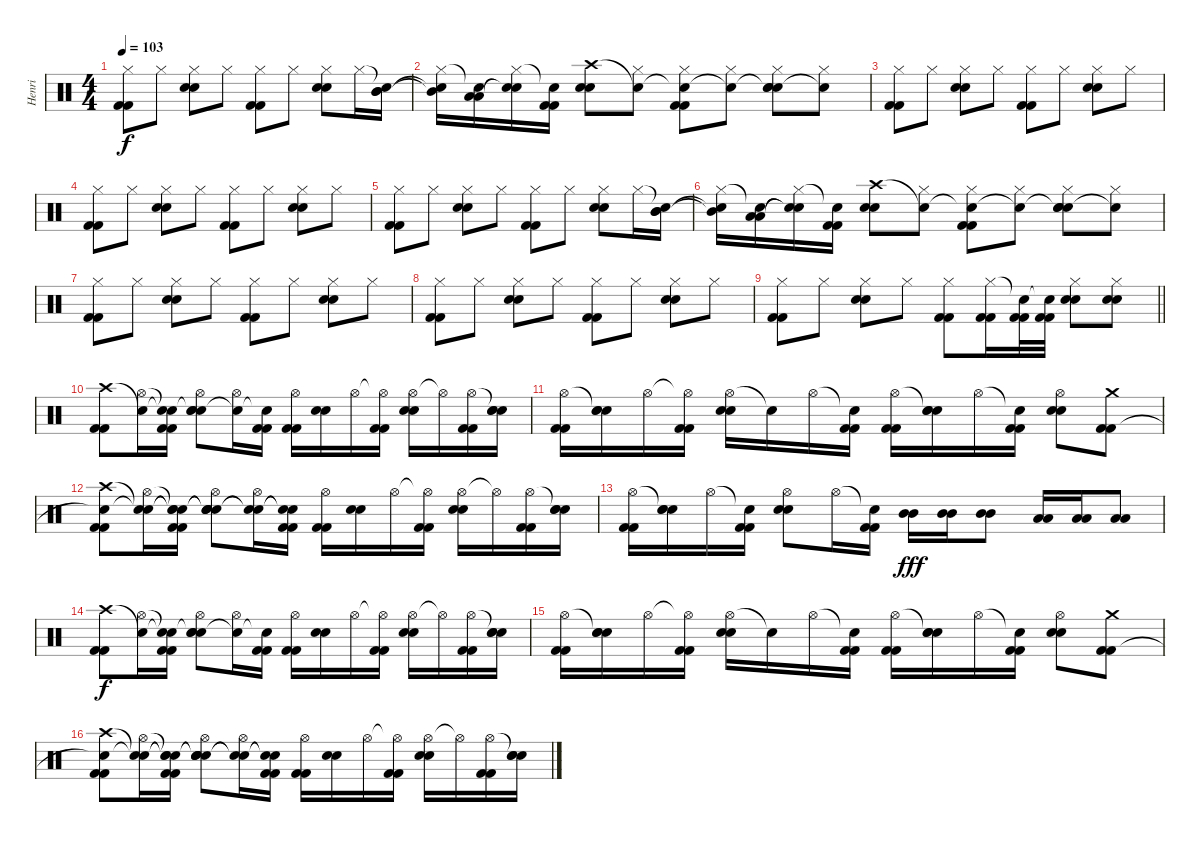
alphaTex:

\track ("Henri" "Henri") {instrument percussion}
\staff {score}
\articulation defaults
\ts (4 4)
\tempo 103
\clef neutral
\ks c
("Hi-Hat (closed)" "Kick (hit) 2" "Kick (hit) 2").8{dy f} "Hi-Hat (closed)".8 ("Hi-Hat (closed)" "Snare (hit) 2" "Snare (hit) 2").8 "Hi-Hat (closed)".8 ("Hi-Hat (closed)" "Kick (hit) 2" "Kick (hit) 2").8 "Hi-Hat (closed)".8 ("Hi-Hat (closed)" "Snare (hit) 2" "Snare (hit) 2").8 "Hi-Hat (closed)".16 ("Snare (hit)"{t} "Mid Tom (hit)" "Mid Tom (hit)").16 |
("Hi-Hat (closed)" "Snare (hit)"{t} "Mid Tom (hit)"{t}).16 ("Snare (hit)"{t} "Low Tom (hit)" "Low Tom (hit)").16 ("Hi-Hat (closed)" "Snare (hit)"{t} "Snare (hit)"{t}).16 ("Snare (hit)"{t} "Kick (hit) 2" "Kick (hit) 2").16 ("Crash high (hit)" "Snare (hit) 2" "Snare (hit) 2").8 ("Snare (hit)"{t} "Hi-Hat (closed)").8 ("Snare (hit)"{t} "Hi-Hat (closed)" "Kick (hit) 2" "Kick (hit) 2").8 ("Snare (hit)"{t} "Hi-Hat (closed)").8 ("Snare (hit)"{t} "Hi-Hat (closed)" "Snare (hit) 2" "Snare (hit) 2").8 ("Snare (hit)"{t} "Hi-Hat (closed)").8 |
("Hi-Hat (closed)" "Kick (hit) 2" "Kick (hit) 2").8 "Hi-Hat (closed)".8 ("Hi-Hat (closed)" "Snare (hit) 2" "Snare (hit) 2").8 "Hi-Hat (closed)".8 ("Hi-Hat (closed)" "Kick (hit) 2" "Kick (hit) 2").8 "Hi-Hat (closed)".8 ("Hi-Hat (closed)" "Snare (hit) 2" "Snare (hit) 2").8 "Hi-Hat (closed)".8 |
("Hi-Hat (closed)" "Kick (hit) 2" "Kick (hit) 2").8 "Hi-Hat (closed)".8 ("Hi-Hat (closed)" "Snare (hit) 2" "Snare (hit) 2").8 "Hi-Hat (closed)".8 ("Hi-Hat (closed)" "Kick (hit) 2" "Kick (hit) 2").8 "Hi-Hat (closed)".8 ("Hi-Hat (closed)" "Snare (hit) 2" "Snare (hit) 2").8 "Hi-Hat (closed)".8 |
("Hi-Hat (closed)" "Kick (hit) 2" "Kick (hit) 2").8 "Hi-Hat (closed)".8 ("Hi-Hat (closed)" "Snare (hit) 2" "Snare (hit) 2").8 "Hi-Hat (closed)".8 ("Hi-Hat (closed)" "Kick (hit) 2" "Kick (hit) 2").8 "Hi-Hat (closed)".8 ("Hi-Hat (closed)" "Snare (hit) 2" "Snare (hit) 2").8 "Hi-Hat (closed)".16 ("Snare (hit)"{t} "Mid Tom (hit)" "Mid Tom (hit)").16 |
("Hi-Hat (closed)" "Snare (hit)"{t} "Mid Tom (hit)"{t}).16 ("Snare (hit)"{t} "Low Tom (hit)" "Low Tom (hit)").16 ("Hi-Hat (closed)" "Snare (hit)"{t} "Snare (hit)"{t}).16 ("Snare (hit)"{t} "Kick (hit) 2" "Kick (hit) 2").16 ("Crash high (hit)" "Snare (hit) 2" "Snare (hit) 2").8 ("Snare (hit)"{t} "Hi-Hat (closed)").8 ("Snare (hit)"{t} "Hi-Hat (closed)" "Kick (hit) 2" "Kick (hit) 2").8 ("Snare (hit)"{t} "Hi-Hat (closed)").8 ("Snare (hit)"{t} "Hi-Hat (closed)" "Snare (hit) 2" "Snare (hit) 2").8 ("Snare (hit)"{t} "Hi-Hat (closed)").8 |
("Hi-Hat (closed)" "Kick (hit) 2" "Kick (hit) 2").8 "Hi-Hat (closed)".8 ("Hi-Hat (closed)" "Snare (hit) 2" "Snare (hit) 2").8 "Hi-Hat (closed)".8 ("Hi-Hat (closed)" "Kick (hit) 2" "Kick (hit) 2").8 "Hi-Hat (closed)".8 ("Hi-Hat (closed)" "Snare (hit) 2" "Snare (hit) 2").8 "Hi-Hat (closed)".8 |
("Hi-Hat (closed)" "Kick (hit) 2" "Kick (hit) 2").8 "Hi-Hat (closed)".8 ("Hi-Hat (closed)" "Snare (hit) 2" "Snare (hit) 2").8 "Hi-Hat (closed)".8 ("Hi-Hat (closed)" "Kick (hit) 2" "Kick (hit) 2").8 "Hi-Hat (closed)".8 ("Hi-Hat (closed)" "Snare (hit) 2" "Snare (hit) 2").8 "Hi-Hat (closed)".8 |
\barLineRight lightlight
("Hi-Hat (closed)" "Kick (hit) 2" "Kick (hit) 2").8 "Hi-Hat (closed)".8 ("Hi-Hat (closed)" "Snare (hit) 2" "Snare (hit) 2").8 "Hi-Hat (closed)".8 ("Hi-Hat (closed)" "Kick (hit) 2" "Kick (hit) 2").8 ("Hi-Hat (closed)" "Kick (hit) 2" "Kick (hit) 2").16 ("Snare (hit)"{t} "Kick (hit) 2" "Kick (hit) 2").32 ("Snare (hit)"{t} "Kick (hit) 2" "Kick (hit) 2").32 ("Hi-Hat (closed)" "Snare (hit) 2" "Snare (hit) 2").8 ("Hi-Hat (closed)" "Snare (hit) 2" "Snare (hit) 2").8 |
("Crash high (hit)" "Kick (hit) 2" "Kick (hit) 2").8 ("Snare (hit)"{t} "Hi-Hat (open)").16 ("Snare (hit)"{t} "Snare (hit)"{t} "Kick (hit) 2" "Kick (hit) 2").16 ("Snare (hit)"{t} "Hi-Hat (open)" "Snare (hit) 2" "Snare (hit) 2").8 ("Snare (hit)"{t} "Hi-Hat (open)").16 ("Snare (hit)"{t} "Kick (hit) 2" "Kick (hit) 2").16 ("Hi-Hat (open)" "Kick (hit) 2" "Kick (hit) 2").16 ("Snare (hit) 2" "Snare (hit) 2").16 "Hi-Hat (open)".16 ("Hi-Hat (open)"{t} "Kick (hit) 2" "Kick (hit) 2").16 ("Hi-Hat (open)" "Snare (hit) 2" "Snare (hit) 2").16 "Hi-Hat (open)"{t}.16 ("Hi-Hat (open)" "Kick (hit) 2" "Kick (hit) 2").16 ("Snare (hit)"{t} "Snare (hit) 2" "Snare (hit) 2").16 |
("Hi-Hat (open)" "Kick (hit) 2" "Kick (hit) 2").16 ("Snare (hit)"{t} "Snare (hit) 2" "Snare (hit) 2").16 "Hi-Hat (open)".16 ("Hi-Hat (open)"{t} "Kick (hit) 2" "Kick (hit) 2").16 ("Hi-Hat (open)" "Snare (hit) 2" "Snare (hit) 2").16 "Snare (hit)"{t}.16 "Hi-Hat (open)".16 ("Snare (hit)"{t} "Kick (hit) 2" "Kick (hit) 2").16 ("Hi-Hat (open)" "Kick (hit) 2" "Kick (hit) 2").16 ("Snare (hit)"{t} "Snare (hit) 2" "Snare (hit) 2").16 "Hi-Hat (open)".16 ("Snare (hit)"{t} "Kick (hit) 2" "Kick (hit) 2").16 ("Hi-Hat (open)" "Snare (hit) 2" "Snare (hit) 2").8 ("Crash medium (hit)" "Kick (hit) 2" "Kick (hit) 2").8 |
("Crash high (hit)" "Snare (hit)"{t} "Kick (hit) 2" "Kick (hit) 2").8 ("Snare (hit)"{t} "Snare (hit)"{t} "Hi-Hat (open)").16 ("Snare (hit)"{t} "Snare (hit)"{t} "Snare (hit)"{t} "Kick (hit) 2" "Kick (hit) 2").16 ("Snare (hit)"{t} "Snare (hit)"{t} "Hi-Hat (open)" "Snare (hit) 2" "Snare (hit) 2").8 ("Snare (hit)"{t} "Snare (hit)"{t} "Hi-Hat (open)").16 ("Snare (hit)"{t} "Snare (hit)"{t} "Kick (hit) 2" "Kick (hit) 2").16 ("Hi-Hat (open)" "Kick (hit) 2" "Kick (hit) 2").16 ("Snare (hit) 2" "Snare (hit) 2").16 "Hi-Hat (open)".16 ("Hi-Hat (open)"{t} "Kick (hit) 2" "Kick (hit) 2").16 ("Hi-Hat (open)" "Snare (hit) 2" "Snare (hit) 2").16 "Hi-Hat (open)"{t}.16 ("Hi-Hat (open)" "Kick (hit) 2" "Kick (hit) 2").16 ("Snare (hit)"{t} "Snare (hit) 2" "Snare (hit) 2").16 |
("Hi-Hat (open)" "Kick (hit) 2" "Kick (hit) 2").16 ("Snare (hit)"{t} "Snare (hit) 2" "Snare (hit) 2").16 "Hi-Hat (open)".16 ("Snare (hit)"{t} "Kick (hit) 2" "Kick (hit) 2").16 ("Hi-Hat (open)" "Snare (hit) 2" "Snare (hit) 2").8 "Hi-Hat (open)".16 ("Snare (hit)"{t} "Kick (hit) 2" "Kick (hit) 2").16 ("Mid Tom (hit)" "Mid Tom (hit)").16{dy fff} ("Mid Tom (hit)" "Mid Tom (hit)").16 ("Mid Tom (hit)" "Mid Tom (hit)").8 ("Low Tom (hit)" "Low Tom (hit)").16 ("Low Tom (hit)" "Low Tom (hit)").16 ("Low Tom (hit)" "Low Tom (hit)").8 |
("Crash high (hit)" "Kick (hit) 2" "Kick (hit) 2").8{dy f} ("Snare (hit)"{t} "Hi-Hat (open)").16 ("Snare (hit)"{t} "Snare (hit)"{t} "Kick (hit) 2" "Kick (hit) 2").16 ("Snare (hit)"{t} "Hi-Hat (open)" "Snare (hit) 2" "Snare (hit) 2").8 ("Snare (hit)"{t} "Hi-Hat (open)").16 ("Snare (hit)"{t} "Kick (hit) 2" "Kick (hit) 2").16 ("Hi-Hat (open)" "Kick (hit) 2" "Kick (hit) 2").16 ("Snare (hit) 2" "Snare (hit) 2").16 "Hi-Hat (open)".16 ("Hi-Hat (open)"{t} "Kick (hit) 2" "Kick (hit) 2").16 ("Hi-Hat (open)" "Snare (hit) 2" "Snare (hit) 2").16 "Hi-Hat (open)"{t}.16 ("Hi-Hat (open)" "Kick (hit) 2" "Kick (hit) 2").16 ("Snare (hit)"{t} "Snare (hit) 2" "Snare (hit) 2").16 |
("Hi-Hat (open)" "Kick (hit) 2" "Kick (hit) 2").16 ("Snare (hit)"{t} "Snare (hit) 2" "Snare (hit) 2").16 "Hi-Hat (open)".16 ("Hi-Hat (open)"{t} "Kick (hit) 2" "Kick (hit) 2").16 ("Hi-Hat (open)" "Snare (hit) 2" "Snare (hit) 2").16 "Snare (hit)"{t}.16 "Hi-Hat (open)".16 ("Snare (hit)"{t} "Kick (hit) 2" "Kick (hit) 2").16 ("Hi-Hat (open)" "Kick (hit) 2" "Kick (hit) 2").16 ("Snare (hit)"{t} "Snare (hit) 2" "Snare (hit) 2").16 "Hi-Hat (open)".16 ("Snare (hit)"{t} "Kick (hit) 2" "Kick (hit) 2").16 ("Hi-Hat (open)" "Snare (hit) 2" "Snare (hit) 2").8 ("Crash medium (hit)" "Kick (hit) 2" "Kick (hit) 2").8 |
("Crash high (hit)" "Snare (hit)"{t} "Kick (hit) 2" "Kick (hit) 2").8 ("Snare (hit)"{t} "Snare (hit)"{t} "Hi-Hat (open)").16 ("Snare (hit)"{t} "Snare (hit)"{t} "Snare (hit)"{t} "Kick (hit) 2" "Kick (hit) 2").16 ("Snare (hit)"{t} "Snare (hit)"{t} "Hi-Hat (open)" "Snare (hit) 2" "Snare (hit) 2").8 ("Snare (hit)"{t} "Snare (hit)"{t} "Hi-Hat (open)").16 ("Snare (hit)"{t} "Snare (hit)"{t} "Kick (hit) 2" "Kick (hit) 2").16 ("Hi-Hat (open)" "Kick (hit) 2" "Kick (hit) 2").16 ("Snare (hit) 2" "Snare (hit) 2").16 "Hi-Hat (open)".16 ("Hi-Hat (open)"{t} "Kick (hit) 2" "Kick (hit) 2").16 ("Hi-Hat (open)" "Snare (hit) 2" "Snare (hit) 2").16 "Hi-Hat (open)"{t}.16 ("Hi-Hat (open)" "Kick (hit) 2" "Kick (hit) 2").16 ("Snare (hit)"{t} "Snare (hit) 2" "Snare (hit) 2").16
